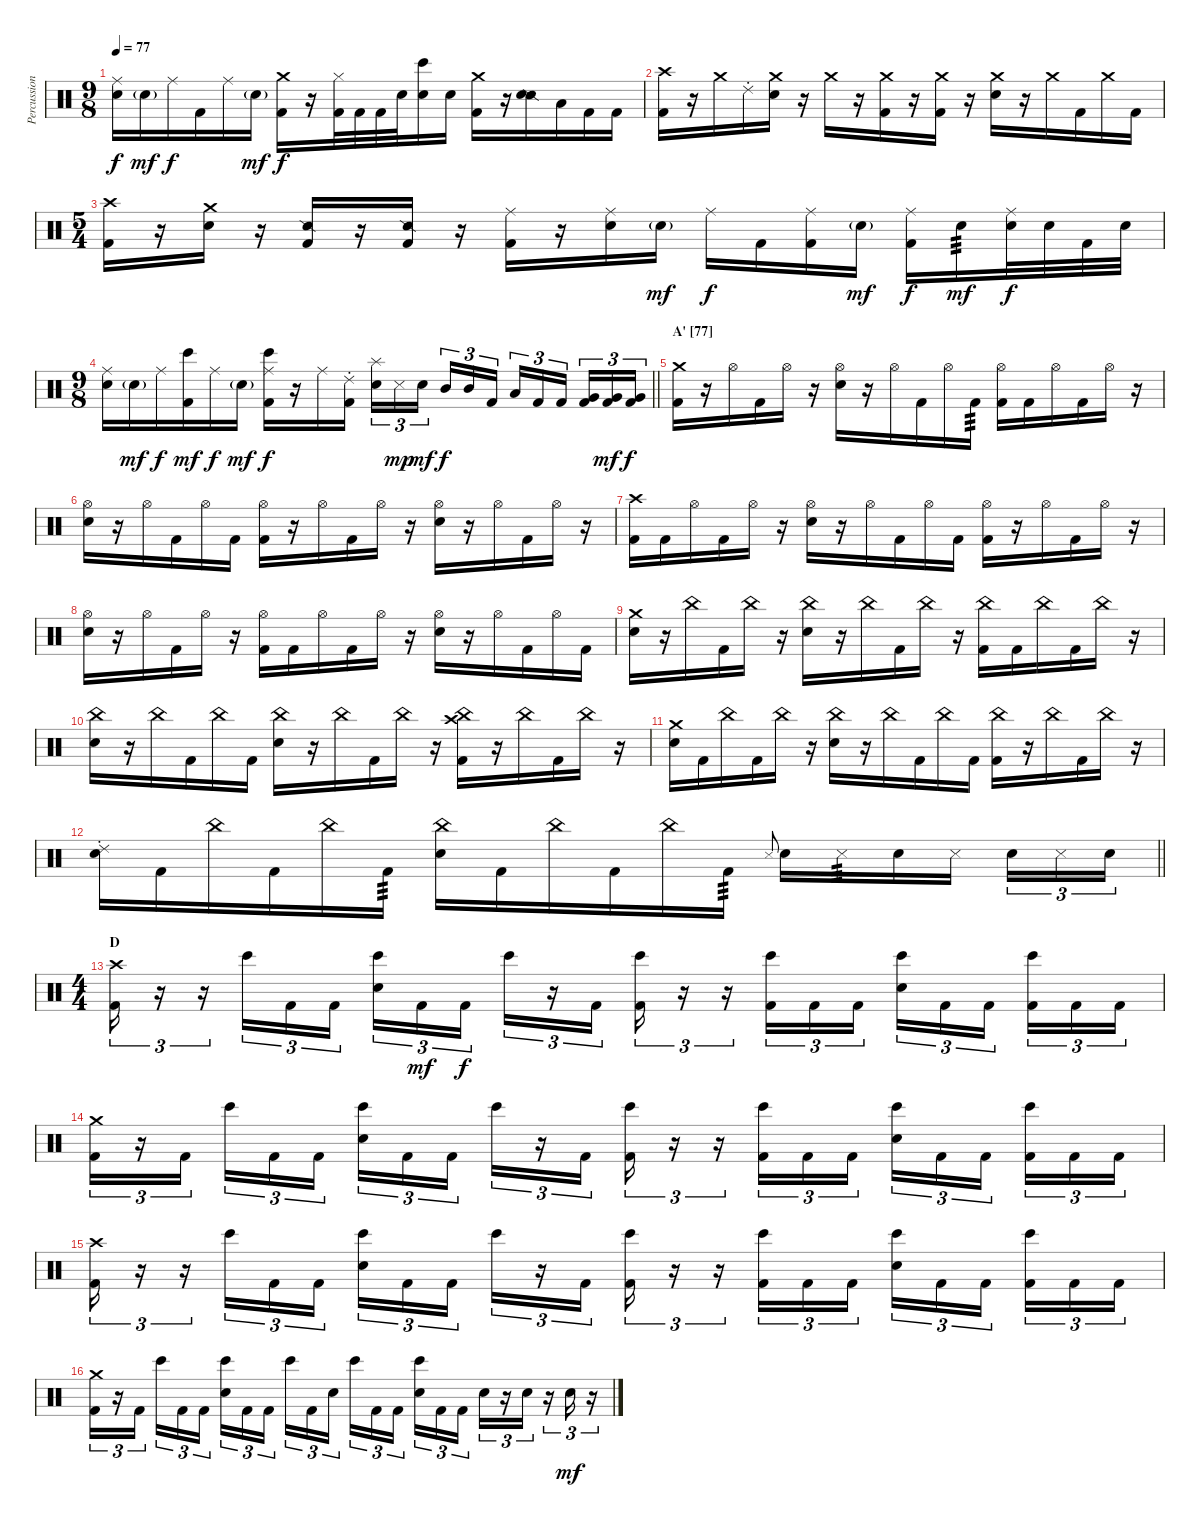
\track ("Percussion" "Percussion") {instrument percussion}
\staff {score}
\articulation defaults
\ts (9 8)
\tempo 77
\clef neutral
\ks c
("Ride (middle)" "Snare (hit) 2").16{dy f} "Snare (hit) 2"{g}.16{dy mf} "Ride (middle)".16{dy f} "Kick (hit) 2".16 "Ride (middle)".16 "Snare (hit) 2"{g}.16{dy mf} ("Crash medium (hit)" "Kick (hit) 2").16{dy f} r.16 ("Hi-Hat (closed)" "Kick (hit) 2").32 "Kick (hit) 2".32 "Kick (hit) 2".32 "Snare (hit) 2".32 ("Bongo High (hit)" "Snare (hit) 2").16 "Snare (hit) 2".16 ("Crash medium (hit)" "Kick (hit) 2").16 r.16 ("Snare (side stick) 2" "Snare (hit) 2").16 "Low Tom (hit)".16 "Kick (hit) 2".16 "Kick (hit) 2".16 |
("Crash high (hit)" "Kick (hit) 2").16 r.16 "Crash medium (hit)".16 "Ride (choke) 2".16 ("Crash medium (hit)" "Snare (hit) 2").16 r.16 "Crash medium (hit)".16 r.16 ("Crash medium (hit)" "Kick (hit) 2").16 r.16 ("Crash medium (hit)" "Kick (hit) 2").16 r.16 ("Crash medium (hit)" "Snare (hit) 2").16 r.16 "Crash medium (hit)".16 "Kick (hit) 2".16 "Crash medium (hit)".16 "Kick (hit) 2".16 |
\ts (5 4)
("Crash high (hit)" "Kick (hit) 2").16 r.16 ("Crash medium (hit)" "Snare (hit) 2").16 r.16 ("Snare (side stick) 2" "Kick (hit) 2").16 r.16 ("Snare (side stick) 2" "Kick (hit) 2").16 r.16 ("Ride (middle)" "Kick (hit) 2").16 r.16 ("Ride (middle)" "Snare (hit) 2").16 "Snare (hit) 2"{g}.16{dy mf} "Ride (middle)".16{dy f} "Kick (hit) 2".16 ("Ride (middle)" "Kick (hit) 2").16 "Snare (hit) 2"{g}.16{dy mf} ("Ride (middle)" "Kick (hit) 2").16{dy f} "Snare (hit) 2".16{tp 3 dy mf} ("Ride (middle)" "Snare (hit) 2").32{dy f} "Snare (hit) 2".32 "Kick (hit) 2".32 "Snare (hit) 2".32 |
\ts (9 8)
\barLineRight lightlight
("Ride (middle)" "Snare (hit) 2").16 "Snare (hit) 2"{g}.16{dy mf} "Ride (middle)".16{dy f} ("Bongo High (hit)" "Kick (hit) 2").16{dy mf} "Ride (middle)".16{dy f} "Snare (hit) 2"{g}.16{dy mf} ("Ride (middle)" "Bongo High (hit)" "Kick (hit) 2").16{dy f} r.16 "Ride (middle)".16 ("Ride (choke) 2" "Kick (hit) 2").16{beam splitsecondary} ("Splash (hit)" "Snare (hit) 2").16{tu (3 2)} "Metronome (hit)".16{tu (3 2) dy mp} "Snare (hit) 2".16{tu (3 2) dy mf} "Mid Tom (hit)".16{tu (3 2) dy f} "Mid Tom (hit)".16{tu (3 2)} "Kick (hit) 2".16{tu (3 2) beam splitsecondary} "Low Tom (hit)".16{tu (3 2)} "Kick (hit) 2".16{tu (3 2)} "Kick (hit) 2".16{tu (3 2) beam splitsecondary} ("Very Low Tom (hit)" "Kick (hit) 2").16{tu (3 2)} ("Very Low Tom (hit)" "Kick (hit) 2").16{tu (3 2) dy mf} ("Very Low Tom (hit)" "Kick (hit) 2").16{tu (3 2) dy f} |
\section ("" "A' [77]")
("Crash medium (hit)" "Kick (hit) 2").16 r.16 "Hi-Hat (open)".16 "Kick (hit) 2".16 "Hi-Hat (open)".16 r.16 ("Hi-Hat (open)" "Snare (hit) 2").16 r.16 "Hi-Hat (open)".16 "Kick (hit) 2".16 "Hi-Hat (open)".16 "Kick (hit) 2".16{tp 3} ("Hi-Hat (open)" "Kick (hit) 2").16 "Kick (hit) 2".16 "Hi-Hat (open)".16 "Kick (hit) 2".16 "Hi-Hat (open)".16 r.16 |
("Hi-Hat (open)" "Snare (hit) 2").16 r.16 "Hi-Hat (open)".16 "Kick (hit) 2".16 "Hi-Hat (open)".16 "Kick (hit) 2".16 ("Hi-Hat (open)" "Kick (hit) 2").16 r.16 "Hi-Hat (open)".16 "Kick (hit) 2".16 "Hi-Hat (open)".16 r.16 ("Hi-Hat (open)" "Snare (hit) 2").16 r.16 "Hi-Hat (open)".16 "Kick (hit) 2".16 "Hi-Hat (open)".16 r.16 |
("Crash high (hit)" "Kick (hit) 2").16 "Kick (hit) 2".16 "Hi-Hat (open)".16 "Kick (hit) 2".16 "Hi-Hat (open)".16 r.16 ("Hi-Hat (open)" "Snare (hit) 2").16 r.16 "Hi-Hat (open)".16 "Kick (hit) 2".16 "Hi-Hat (open)".16 "Kick (hit) 2".16 ("Hi-Hat (open)" "Kick (hit) 2").16 r.16 "Hi-Hat (open)".16 "Kick (hit) 2".16 "Hi-Hat (open)".16 r.16 |
("Hi-Hat (open)" "Snare (hit) 2").16 r.16 "Hi-Hat (open)".16 "Kick (hit) 2".16 "Hi-Hat (open)".16 r.16 ("Hi-Hat (open)" "Kick (hit) 2").16 "Kick (hit) 2".16 "Hi-Hat (open)".16 "Kick (hit) 2".16 "Hi-Hat (open)".16 r.16 ("Hi-Hat (open)" "Snare (hit) 2").16 r.16 "Hi-Hat (open)".16 "Kick (hit) 2".16 "Hi-Hat (open)".16 "Kick (hit) 2".16 |
("Crash medium (hit)" "Snare (hit) 2").16 r.16 "China (hit)".16 "Kick (hit) 2".16 "China (hit)".16 r.16 ("China (hit)" "Snare (hit) 2").16 r.16 "China (hit)".16 "Kick (hit) 2".16 "China (hit)".16 r.16 ("China (hit)" "Kick (hit) 2").16 "Kick (hit) 2".16 "China (hit)".16 "Kick (hit) 2".16 "China (hit)".16 r.16 |
("China (hit)" "Snare (hit) 2").16 r.16 "China (hit)".16 "Kick (hit) 2".16 "China (hit)".16 "Kick (hit) 2".16 ("China (hit)" "Snare (hit) 2").16 r.16 "China (hit)".16 "Kick (hit) 2".16 "China (hit)".16 r.16 ("China (hit)" "Crash high (hit)" "Kick (hit) 2").16 r.16 "China (hit)".16 "Kick (hit) 2".16 "China (hit)".16 r.16 |
("Crash medium (hit)" "Snare (hit) 2").16 "Kick (hit) 2".16 "China (hit)".16 "Kick (hit) 2".16 "China (hit)".16 r.16 ("China (hit)" "Snare (hit) 2").16 r.16 "China (hit)".16 "Kick (hit) 2".16 "China (hit)".16 "Kick (hit) 2".16 ("China (hit)" "Kick (hit) 2").16 r.16 "China (hit)".16 "Kick (hit) 2".16 "China (hit)".16 r.16 |
\barLineRight lightlight
("Ride (choke) 2" "Snare (hit) 2").16 "Kick (hit) 2".16 "China (hit)".16 "Kick (hit) 2".16 "China (hit)".16 "Kick (hit) 2".16{tp 3} ("China (hit)" "Snare (hit) 2").16 "Kick (hit) 2".16 "China (hit)".16 "Kick (hit) 2".16 "China (hit)".16 "Kick (hit) 2".16{tp 3} "Metronome (hit)".8{gr onbeat} "Snare (hit) 2".16 "Metronome (hit)".16{tp 3} "Snare (hit) 2".16 "Metronome (hit)".16{beam splitsecondary} "Snare (hit) 2".16{tu (3 2)} "Metronome (hit)".16{tu (3 2)} "Snare (hit) 2".16{tu (3 2)} |
\ts (4 4)
\section ("" "D")
("Crash high (hit)" "Kick (hit) 2").16{tu (3 2)} r.16{tu (3 2)} r.16{tu (3 2)} "Bongo High (hit)".16{tu (3 2)} "Kick (hit) 2".16{tu (3 2)} "Kick (hit) 2".16{tu (3 2)} ("Bongo High (hit)" "Snare (hit) 2").16{tu (3 2)} "Kick (hit) 2".16{tu (3 2) dy mf} "Kick (hit) 2".16{tu (3 2) dy f beam splitsecondary} "Bongo High (hit)".16{tu (3 2)} r.16{tu (3 2)} "Kick (hit) 2".16{tu (3 2)} ("Bongo High (hit)" "Kick (hit) 2").16{tu (3 2)} r.16{tu (3 2)} r.16{tu (3 2)} ("Bongo High (hit)" "Kick (hit) 2").16{tu (3 2)} "Kick (hit) 2".16{tu (3 2)} "Kick (hit) 2".16{tu (3 2)} ("Bongo High (hit)" "Snare (hit) 2").16{tu (3 2)} "Kick (hit) 2".16{tu (3 2)} "Kick (hit) 2".16{tu (3 2) beam splitsecondary} ("Bongo High (hit)" "Kick (hit) 2").16{tu (3 2)} "Kick (hit) 2".16{tu (3 2)} "Kick (hit) 2".16{tu (3 2)} |
("Crash medium (hit)" "Kick (hit) 2").16{tu (3 2)} r.16{tu (3 2)} "Kick (hit) 2".16{tu (3 2) beam splitsecondary} "Bongo High (hit)".16{tu (3 2)} "Kick (hit) 2".16{tu (3 2)} "Kick (hit) 2".16{tu (3 2)} ("Bongo High (hit)" "Snare (hit) 2").16{tu (3 2)} "Kick (hit) 2".16{tu (3 2)} "Kick (hit) 2".16{tu (3 2) beam splitsecondary} "Bongo High (hit)".16{tu (3 2)} r.16{tu (3 2)} "Kick (hit) 2".16{tu (3 2)} ("Bongo High (hit)" "Kick (hit) 2").16{tu (3 2)} r.16{tu (3 2)} r.16{tu (3 2)} ("Bongo High (hit)" "Kick (hit) 2").16{tu (3 2)} "Kick (hit) 2".16{tu (3 2)} "Kick (hit) 2".16{tu (3 2)} ("Bongo High (hit)" "Snare (hit) 2").16{tu (3 2)} "Kick (hit) 2".16{tu (3 2)} "Kick (hit) 2".16{tu (3 2) beam splitsecondary} ("Bongo High (hit)" "Kick (hit) 2").16{tu (3 2)} "Kick (hit) 2".16{tu (3 2)} "Kick (hit) 2".16{tu (3 2)} |
("Crash high (hit)" "Kick (hit) 2").16{tu (3 2)} r.16{tu (3 2)} r.16{tu (3 2)} "Bongo High (hit)".16{tu (3 2)} "Kick (hit) 2".16{tu (3 2)} "Kick (hit) 2".16{tu (3 2)} ("Bongo High (hit)" "Snare (hit) 2").16{tu (3 2)} "Kick (hit) 2".16{tu (3 2)} "Kick (hit) 2".16{tu (3 2) beam splitsecondary} "Bongo High (hit)".16{tu (3 2)} r.16{tu (3 2)} "Kick (hit) 2".16{tu (3 2)} ("Bongo High (hit)" "Kick (hit) 2").16{tu (3 2)} r.16{tu (3 2)} r.16{tu (3 2)} ("Bongo High (hit)" "Kick (hit) 2").16{tu (3 2)} "Kick (hit) 2".16{tu (3 2)} "Kick (hit) 2".16{tu (3 2)} ("Bongo High (hit)" "Snare (hit) 2").16{tu (3 2)} "Kick (hit) 2".16{tu (3 2)} "Kick (hit) 2".16{tu (3 2) beam splitsecondary} ("Bongo High (hit)" "Kick (hit) 2").16{tu (3 2)} "Kick (hit) 2".16{tu (3 2)} "Kick (hit) 2".16{tu (3 2)} |
("Crash medium (hit)" "Kick (hit) 2").16{tu (3 2)} r.16{tu (3 2)} "Kick (hit) 2".16{tu (3 2) beam splitsecondary} "Bongo High (hit)".16{tu (3 2)} "Kick (hit) 2".16{tu (3 2)} "Kick (hit) 2".16{tu (3 2)} ("Bongo High (hit)" "Snare (hit) 2").16{tu (3 2)} "Kick (hit) 2".16{tu (3 2)} "Kick (hit) 2".16{tu (3 2) beam splitsecondary} "Bongo High (hit)".16{tu (3 2)} "Kick (hit) 2".16{tu (3 2)} "Snare (hit) 2".16{tu (3 2)} "Bongo High (hit)".16{tu (3 2)} "Kick (hit) 2".16{tu (3 2)} "Kick (hit) 2".16{tu (3 2) beam splitsecondary} ("Bongo High (hit)" "Snare (hit) 2").16{tu (3 2)} "Kick (hit) 2".16{tu (3 2)} "Kick (hit) 2".16{tu (3 2)} "Snare (hit) 2".16{tu (3 2)} r.16{tu (3 2)} "Snare (hit) 2".16{tu (3 2)} r.16{tu (3 2)} "Snare (hit) 2".16{tu (3 2) dy mf} r.16{tu (3 2)}
